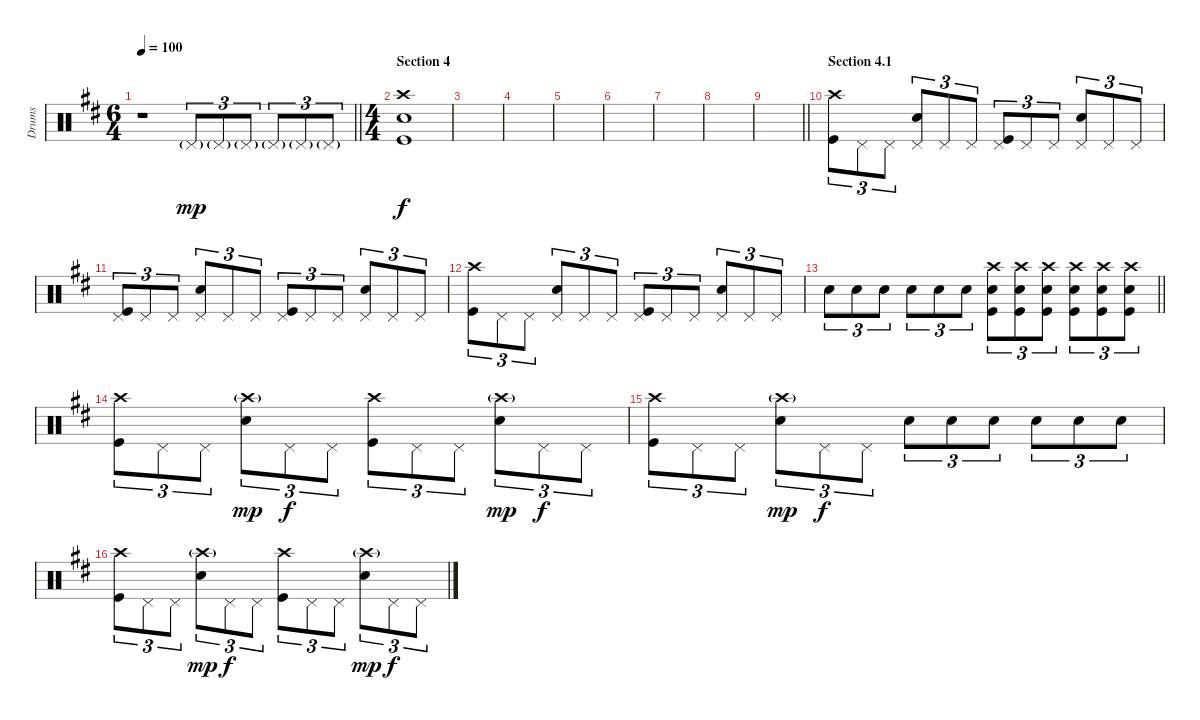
\track ("Drums" "Drums") {instrument percussion}
\staff {score}
\articulation defaults
\ts (6 4)
\tempo 100
\clef neutral
\barLineRight lightlight
\ks d
r.1{dy f} "Pedal Hi-Hat (hit)"{g}.8{tu (3 2) dy mp} "Pedal Hi-Hat (hit)"{g}.8{tu (3 2)} "Pedal Hi-Hat (hit)"{g}.8{tu (3 2)} "Pedal Hi-Hat (hit)"{g}.8{tu (3 2)} "Pedal Hi-Hat (hit)"{g}.8{tu (3 2)} "Pedal Hi-Hat (hit)"{g}.8{tu (3 2)} |
\ts (4 4)
\section ("" "Section 4")
("Crash high (hit)" "Snare (hit) 2" "Kick (hit)").1{dy f} |
|
|
|
|
|
|
\barLineRight lightlight
|
\section ("" "Section 4.1")
("Crash high (hit)" "Kick (hit)").8{tu (3 2)} "Pedal Hi-Hat (hit)".8{tu (3 2)} "Pedal Hi-Hat (hit)".8{tu (3 2)} ("Pedal Hi-Hat (hit)" "Snare (hit) 2").8{tu (3 2)} "Pedal Hi-Hat (hit)".8{tu (3 2)} "Pedal Hi-Hat (hit)".8{tu (3 2)} ("Pedal Hi-Hat (hit)" "Kick (hit)").8{tu (3 2)} "Pedal Hi-Hat (hit)".8{tu (3 2)} "Pedal Hi-Hat (hit)".8{tu (3 2)} ("Pedal Hi-Hat (hit)" "Snare (hit) 2").8{tu (3 2)} "Pedal Hi-Hat (hit)".8{tu (3 2)} "Pedal Hi-Hat (hit)".8{tu (3 2)} |
("Pedal Hi-Hat (hit)" "Kick (hit)").8{tu (3 2)} "Pedal Hi-Hat (hit)".8{tu (3 2)} "Pedal Hi-Hat (hit)".8{tu (3 2)} ("Pedal Hi-Hat (hit)" "Snare (hit) 2").8{tu (3 2)} "Pedal Hi-Hat (hit)".8{tu (3 2)} "Pedal Hi-Hat (hit)".8{tu (3 2)} ("Pedal Hi-Hat (hit)" "Kick (hit)").8{tu (3 2)} "Pedal Hi-Hat (hit)".8{tu (3 2)} "Pedal Hi-Hat (hit)".8{tu (3 2)} ("Pedal Hi-Hat (hit)" "Snare (hit) 2").8{tu (3 2)} "Pedal Hi-Hat (hit)".8{tu (3 2)} "Pedal Hi-Hat (hit)".8{tu (3 2)} |
("Crash high (hit)" "Kick (hit)").8{tu (3 2)} "Pedal Hi-Hat (hit)".8{tu (3 2)} "Pedal Hi-Hat (hit)".8{tu (3 2)} ("Pedal Hi-Hat (hit)" "Snare (hit) 2").8{tu (3 2)} "Pedal Hi-Hat (hit)".8{tu (3 2)} "Pedal Hi-Hat (hit)".8{tu (3 2)} ("Pedal Hi-Hat (hit)" "Kick (hit)").8{tu (3 2)} "Pedal Hi-Hat (hit)".8{tu (3 2)} "Pedal Hi-Hat (hit)".8{tu (3 2)} ("Pedal Hi-Hat (hit)" "Snare (hit) 2").8{tu (3 2)} "Pedal Hi-Hat (hit)".8{tu (3 2)} "Pedal Hi-Hat (hit)".8{tu (3 2)} |
\barLineRight lightlight "Snare (hit) 2".8{tu (3 2)} "Snare (hit) 2".8{tu (3 2)} "Snare (hit) 2".8{tu (3 2)} "Snare (hit) 2".8{tu (3 2)} "Snare (hit) 2".8{tu (3 2)} "Snare (hit) 2".8{tu (3 2)}
("Crash high (hit)" "Snare (hit) 2" "Kick (hit)").8{tu (3 2)} ("Crash high (hit)" "Snare (hit) 2" "Kick (hit)").8{tu (3 2)} ("Crash high (hit)" "Snare (hit) 2" "Kick (hit)").8{tu (3 2)} ("Crash high (hit)" "Snare (hit) 2" "Kick (hit)").8{tu (3 2)} ("Crash high (hit)" "Snare (hit) 2" "Kick (hit)").8{tu (3 2)} ("Crash high (hit)" "Snare (hit) 2" "Kick (hit)").8{tu (3 2)} |
("Crash high (hit)" "Kick (hit)").8{tu (3 2)} "Pedal Hi-Hat (hit)".8{tu (3 2)} "Pedal Hi-Hat (hit)".8{tu (3 2)} ("Crash high (hit)"{g} "Snare (hit) 2").8{tu (3 2) dy mp} "Pedal Hi-Hat (hit)".8{tu (3 2) dy f} "Pedal Hi-Hat (hit)".8{tu (3 2)} ("Crash high (hit)" "Kick (hit)").8{tu (3 2)} "Pedal Hi-Hat (hit)".8{tu (3 2)} "Pedal Hi-Hat (hit)".8{tu (3 2)} ("Crash high (hit)"{g} "Snare (hit) 2").8{tu (3 2) dy mp} "Pedal Hi-Hat (hit)".8{tu (3 2) dy f} "Pedal Hi-Hat (hit)".8{tu (3 2)} |
("Crash high (hit)" "Kick (hit)").8{tu (3 2)} "Pedal Hi-Hat (hit)".8{tu (3 2)} "Pedal Hi-Hat (hit)".8{tu (3 2)} ("Crash high (hit)"{g} "Snare (hit) 2").8{tu (3 2) dy mp} "Pedal Hi-Hat (hit)".8{tu (3 2) dy f} "Pedal Hi-Hat (hit)".8{tu (3 2)} "Snare (hit) 2".8{tu (3 2)} "Snare (hit) 2".8{tu (3 2)} "Snare (hit) 2".8{tu (3 2)} "Snare (hit) 2".8{tu (3 2)} "Snare (hit) 2".8{tu (3 2)} "Snare (hit) 2".8{tu (3 2)} |
("Crash high (hit)" "Kick (hit)").8{tu (3 2)} "Pedal Hi-Hat (hit)".8{tu (3 2)} "Pedal Hi-Hat (hit)".8{tu (3 2)} ("Crash high (hit)"{g} "Snare (hit) 2").8{tu (3 2) dy mp} "Pedal Hi-Hat (hit)".8{tu (3 2) dy f} "Pedal Hi-Hat (hit)".8{tu (3 2)} ("Crash high (hit)" "Kick (hit)").8{tu (3 2)} "Pedal Hi-Hat (hit)".8{tu (3 2)} "Pedal Hi-Hat (hit)".8{tu (3 2)} ("Crash high (hit)"{g} "Snare (hit) 2").8{tu (3 2) dy mp} "Pedal Hi-Hat (hit)".8{tu (3 2) dy f} "Pedal Hi-Hat (hit)".8{tu (3 2)}
